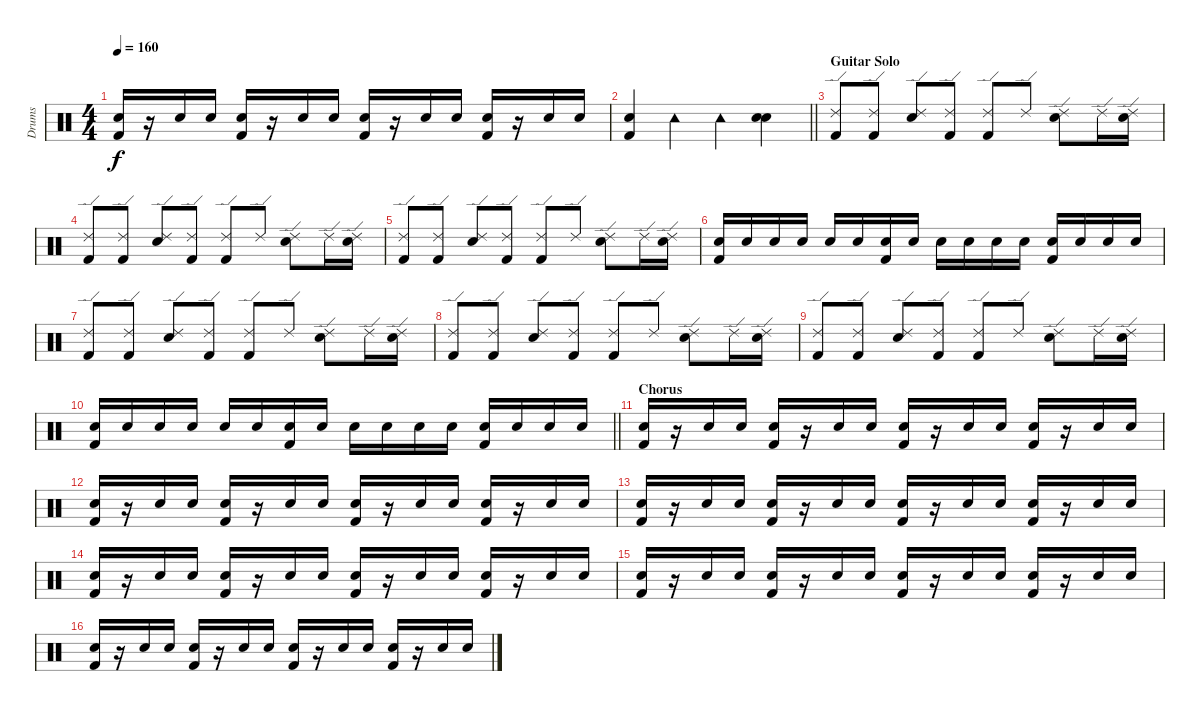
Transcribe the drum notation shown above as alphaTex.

\track ("Drums" "Drums") {instrument percussion}
\staff {score}
\articulation defaults
\ts (4 4)
\tempo 160
\clef neutral
\ks c
("Snare (hit) 2" "Kick (hit) 2").16{dy f} r.16 "Snare (hit) 2".16 "Snare (hit) 2".16 ("Snare (hit) 2" "Kick (hit) 2").16 r.16 "Snare (hit) 2".16 "Snare (hit) 2".16 ("Snare (hit) 2" "Kick (hit) 2").16 r.16 "Snare (hit) 2".16 "Snare (hit) 2".16 ("Snare (hit) 2" "Kick (hit) 2").16 r.16 "Snare (hit) 2".16 "Snare (hit) 2".16 |
\barLineRight lightlight
("Snare (hit) 2" "Kick (hit) 2").4 "Tambourine (hit)".4 "Tambourine (hit)".4 ("Snare (hit) 2" "Snare (hit) 2").4 |
\section ("" "Guitar Solo")
("Ride (edge) 2" "Kick (hit) 2").8 ("Ride (edge) 2" "Kick (hit) 2").8 ("Ride (edge) 2" "Snare (hit) 2").8 ("Ride (edge) 2" "Kick (hit) 2").8 ("Ride (edge) 2" "Kick (hit) 2").8 "Ride (edge) 2".8 ("Ride (edge) 2" "Snare (hit) 2").8 "Ride (edge) 2".16 ("Ride (edge) 2" "Snare (hit) 2").16 |
("Ride (edge) 2" "Kick (hit) 2").8 ("Ride (edge) 2" "Kick (hit) 2").8 ("Ride (edge) 2" "Snare (hit) 2").8 ("Ride (edge) 2" "Kick (hit) 2").8 ("Ride (edge) 2" "Kick (hit) 2").8 "Ride (edge) 2".8 ("Ride (edge) 2" "Snare (hit) 2").8 "Ride (edge) 2".16 ("Ride (edge) 2" "Snare (hit) 2").16 |
("Ride (edge) 2" "Kick (hit) 2").8 ("Ride (edge) 2" "Kick (hit) 2").8 ("Ride (edge) 2" "Snare (hit) 2").8 ("Ride (edge) 2" "Kick (hit) 2").8 ("Ride (edge) 2" "Kick (hit) 2").8 "Ride (edge) 2".8 ("Ride (edge) 2" "Snare (hit) 2").8 "Ride (edge) 2".16 ("Ride (edge) 2" "Snare (hit) 2").16 |
("Snare (hit) 2" "Kick (hit) 2").16 "Snare (hit) 2".16 "Snare (hit) 2".16 "Snare (hit) 2".16 "Snare (hit) 2".16 "Snare (hit) 2".16 ("Snare (hit) 2" "Kick (hit) 2").16 "Snare (hit) 2".16 "Snare (hit) 2".16 "Snare (hit) 2".16 "Snare (hit) 2".16 "Snare (hit) 2".16 ("Snare (hit) 2" "Kick (hit) 2").16 "Snare (hit) 2".16 "Snare (hit) 2".16 "Snare (hit) 2".16 |
("Ride (edge) 2" "Kick (hit) 2").8 ("Ride (edge) 2" "Kick (hit) 2").8 ("Ride (edge) 2" "Snare (hit) 2").8 ("Ride (edge) 2" "Kick (hit) 2").8 ("Ride (edge) 2" "Kick (hit) 2").8 "Ride (edge) 2".8 ("Ride (edge) 2" "Snare (hit) 2").8 "Ride (edge) 2".16 ("Ride (edge) 2" "Snare (hit) 2").16 |
("Ride (edge) 2" "Kick (hit) 2").8 ("Ride (edge) 2" "Kick (hit) 2").8 ("Ride (edge) 2" "Snare (hit) 2").8 ("Ride (edge) 2" "Kick (hit) 2").8 ("Ride (edge) 2" "Kick (hit) 2").8 "Ride (edge) 2".8 ("Ride (edge) 2" "Snare (hit) 2").8 "Ride (edge) 2".16 ("Ride (edge) 2" "Snare (hit) 2").16 |
("Ride (edge) 2" "Kick (hit) 2").8 ("Ride (edge) 2" "Kick (hit) 2").8 ("Ride (edge) 2" "Snare (hit) 2").8 ("Ride (edge) 2" "Kick (hit) 2").8 ("Ride (edge) 2" "Kick (hit) 2").8 "Ride (edge) 2".8 ("Ride (edge) 2" "Snare (hit) 2").8 "Ride (edge) 2".16 ("Ride (edge) 2" "Snare (hit) 2").16 |
\barLineRight lightlight
("Snare (hit) 2" "Kick (hit) 2").16 "Snare (hit) 2".16 "Snare (hit) 2".16 "Snare (hit) 2".16 "Snare (hit) 2".16 "Snare (hit) 2".16 ("Snare (hit) 2" "Kick (hit) 2").16 "Snare (hit) 2".16 "Snare (hit) 2".16 "Snare (hit) 2".16 "Snare (hit) 2".16 "Snare (hit) 2".16 ("Snare (hit) 2" "Kick (hit) 2").16 "Snare (hit) 2".16 "Snare (hit) 2".16 "Snare (hit) 2".16 |
\section ("" "Chorus")
("Snare (hit) 2" "Kick (hit) 2").16 r.16 "Snare (hit) 2".16 "Snare (hit) 2".16 ("Snare (hit) 2" "Kick (hit) 2").16 r.16 "Snare (hit) 2".16 "Snare (hit) 2".16 ("Snare (hit) 2" "Kick (hit) 2").16 r.16 "Snare (hit) 2".16 "Snare (hit) 2".16 ("Snare (hit) 2" "Kick (hit) 2").16 r.16 "Snare (hit) 2".16 "Snare (hit) 2".16 |
("Snare (hit) 2" "Kick (hit) 2").16 r.16 "Snare (hit) 2".16 "Snare (hit) 2".16 ("Snare (hit) 2" "Kick (hit) 2").16 r.16 "Snare (hit) 2".16 "Snare (hit) 2".16 ("Snare (hit) 2" "Kick (hit) 2").16 r.16 "Snare (hit) 2".16 "Snare (hit) 2".16 ("Snare (hit) 2" "Kick (hit) 2").16 r.16 "Snare (hit) 2".16 "Snare (hit) 2".16 |
("Snare (hit) 2" "Kick (hit) 2").16 r.16 "Snare (hit) 2".16 "Snare (hit) 2".16 ("Snare (hit) 2" "Kick (hit) 2").16 r.16 "Snare (hit) 2".16 "Snare (hit) 2".16 ("Snare (hit) 2" "Kick (hit) 2").16 r.16 "Snare (hit) 2".16 "Snare (hit) 2".16 ("Snare (hit) 2" "Kick (hit) 2").16 r.16 "Snare (hit) 2".16 "Snare (hit) 2".16 |
("Snare (hit) 2" "Kick (hit) 2").16 r.16 "Snare (hit) 2".16 "Snare (hit) 2".16 ("Snare (hit) 2" "Kick (hit) 2").16 r.16 "Snare (hit) 2".16 "Snare (hit) 2".16 ("Snare (hit) 2" "Kick (hit) 2").16 r.16 "Snare (hit) 2".16 "Snare (hit) 2".16 ("Snare (hit) 2" "Kick (hit) 2").16 r.16 "Snare (hit) 2".16 "Snare (hit) 2".16 |
("Snare (hit) 2" "Kick (hit) 2").16 r.16 "Snare (hit) 2".16 "Snare (hit) 2".16 ("Snare (hit) 2" "Kick (hit) 2").16 r.16 "Snare (hit) 2".16 "Snare (hit) 2".16 ("Snare (hit) 2" "Kick (hit) 2").16 r.16 "Snare (hit) 2".16 "Snare (hit) 2".16 ("Snare (hit) 2" "Kick (hit) 2").16 r.16 "Snare (hit) 2".16 "Snare (hit) 2".16 |
("Snare (hit) 2" "Kick (hit) 2").16 r.16 "Snare (hit) 2".16 "Snare (hit) 2".16 ("Snare (hit) 2" "Kick (hit) 2").16 r.16 "Snare (hit) 2".16 "Snare (hit) 2".16 ("Snare (hit) 2" "Kick (hit) 2").16 r.16 "Snare (hit) 2".16 "Snare (hit) 2".16 ("Snare (hit) 2" "Kick (hit) 2").16 r.16 "Snare (hit) 2".16 "Snare (hit) 2".16
